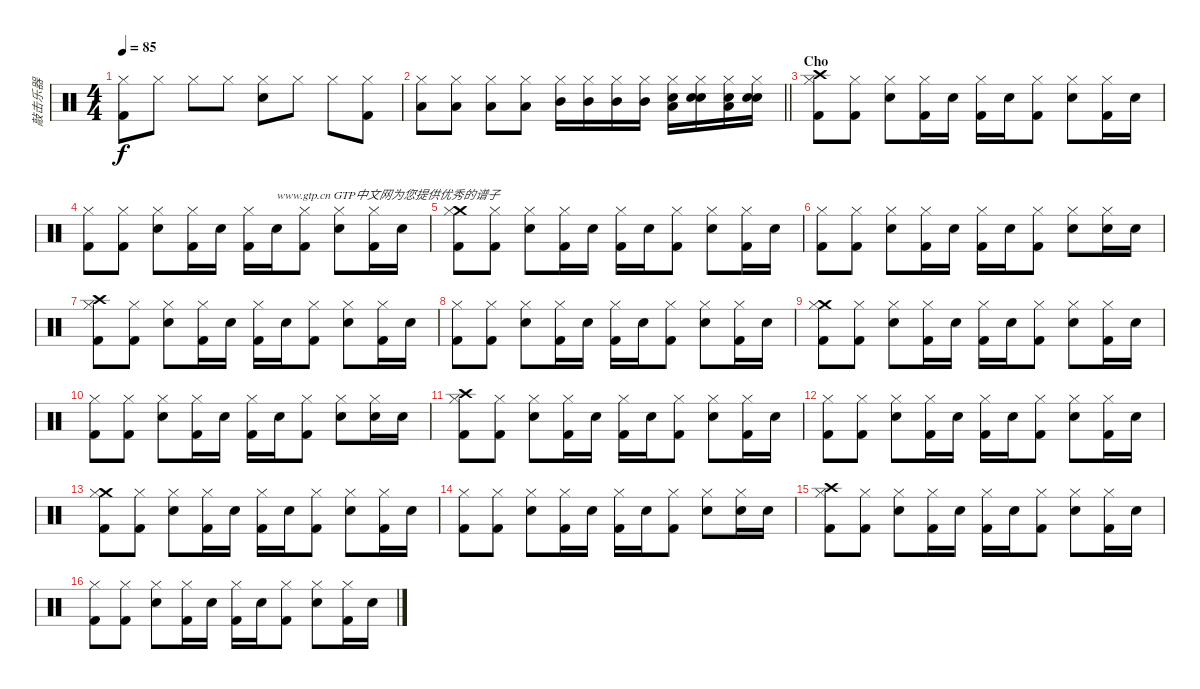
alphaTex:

\track ("敲击乐器" "敲击乐器") {instrument percussion}
\staff {score}
\articulation defaults
\ts (4 4)
\tempo 85
\clef neutral
\ks c
("Hi-Hat (closed)" "Kick (hit) 2").8{dy f} "Hi-Hat (closed)".8 "Hi-Hat (closed)".8 "Hi-Hat (closed)".8 ("Electric Snare (hit)" "Hi-Hat (closed)").8 "Hi-Hat (closed)".8 "Hi-Hat (closed)".8 ("Kick (hit) 2" "Hi-Hat (closed)").8 |
\barLineRight lightlight
("Hi-Hat (closed)" "Low Tom (hit)").8 ("Hi-Hat (closed)" "Low Tom (hit)").8 ("Hi-Hat (closed)" "Low Tom (hit)").8 ("Hi-Hat (closed)" "Low Tom (hit)").8 ("Hi-Hat (closed)" "Mid Tom (hit)").16 ("Hi-Hat (closed)" "Mid Tom (hit)").16 ("Hi-Hat (closed)" "Mid Tom (hit)").16 ("Hi-Hat (closed)" "Mid Tom (hit)").16 ("Low Tom (hit)" "Hi-Hat (closed)" "Electric Snare (hit)").16 ("Electric Snare (hit)" "Hi-Hat (closed)" "Electric Snare (hit)").16 ("Low Tom (hit)" "Hi-Hat (closed)" "Electric Snare (hit)").16 ("Electric Snare (hit)" "Hi-Hat (closed)" "Electric Snare (hit)").16 |
\section ("" "Cho")
("Crash high (hit)" "Hi-Hat (closed)" "Kick (hit) 2").8 ("Hi-Hat (closed)" "Kick (hit) 2").8 ("Hi-Hat (closed)" "Electric Snare (hit)").8 ("Hi-Hat (closed)" "Kick (hit) 2").16 "Electric Snare (hit)".16 ("Hi-Hat (closed)" "Kick (hit) 2").16 "Electric Snare (hit)".16 ("Hi-Hat (closed)" "Kick (hit) 2").8 ("Hi-Hat (closed)" "Electric Snare (hit)").8 ("Hi-Hat (closed)" "Kick (hit) 2").16 "Electric Snare (hit)".16 |
("Hi-Hat (closed)" "Kick (hit) 2").8 ("Hi-Hat (closed)" "Kick (hit) 2").8 ("Hi-Hat (closed)" "Electric Snare (hit)").8 ("Hi-Hat (closed)" "Kick (hit) 2").16 "Electric Snare (hit)".16 ("Hi-Hat (closed)" "Kick (hit) 2").16 "Electric Snare (hit)".16{txt "www.gtp.cn GTP中文网为您提供优秀的谱子"} ("Hi-Hat (closed)" "Kick (hit) 2").8 ("Hi-Hat (closed)" "Electric Snare (hit)").8 ("Hi-Hat (closed)" "Kick (hit) 2").16 "Electric Snare (hit)".16 |
("Crash medium (hit)" "Hi-Hat (closed)" "Kick (hit) 2").8 ("Hi-Hat (closed)" "Kick (hit) 2").8 ("Hi-Hat (closed)" "Electric Snare (hit)").8 ("Hi-Hat (closed)" "Kick (hit) 2").16 "Electric Snare (hit)".16 ("Hi-Hat (closed)" "Kick (hit) 2").16 "Electric Snare (hit)".16 ("Hi-Hat (closed)" "Kick (hit) 2").8 ("Hi-Hat (closed)" "Electric Snare (hit)").8 ("Hi-Hat (closed)" "Kick (hit) 2").16 "Electric Snare (hit)".16 |
("Hi-Hat (closed)" "Kick (hit) 2").8 ("Hi-Hat (closed)" "Kick (hit) 2").8 ("Hi-Hat (closed)" "Electric Snare (hit)").8 ("Hi-Hat (closed)" "Kick (hit) 2").16 "Electric Snare (hit)".16 ("Hi-Hat (closed)" "Kick (hit) 2").16 "Electric Snare (hit)".16 ("Hi-Hat (closed)" "Kick (hit) 2").8 ("Hi-Hat (closed)" "Electric Snare (hit)").8 ("Hi-Hat (closed)" "Electric Snare (hit)").16 "Electric Snare (hit)".16 |
("Crash high (hit)" "Hi-Hat (closed)" "Kick (hit) 2").8 ("Hi-Hat (closed)" "Kick (hit) 2").8 ("Hi-Hat (closed)" "Electric Snare (hit)").8 ("Hi-Hat (closed)" "Kick (hit) 2").16 "Electric Snare (hit)".16 ("Hi-Hat (closed)" "Kick (hit) 2").16 "Electric Snare (hit)".16 ("Hi-Hat (closed)" "Kick (hit) 2").8 ("Hi-Hat (closed)" "Electric Snare (hit)").8 ("Hi-Hat (closed)" "Kick (hit) 2").16 "Electric Snare (hit)".16 |
("Hi-Hat (closed)" "Kick (hit) 2").8 ("Hi-Hat (closed)" "Kick (hit) 2").8 ("Hi-Hat (closed)" "Electric Snare (hit)").8 ("Hi-Hat (closed)" "Kick (hit) 2").16 "Electric Snare (hit)".16 ("Hi-Hat (closed)" "Kick (hit) 2").16 "Electric Snare (hit)".16 ("Hi-Hat (closed)" "Kick (hit) 2").8 ("Hi-Hat (closed)" "Electric Snare (hit)").8 ("Hi-Hat (closed)" "Kick (hit) 2").16 "Electric Snare (hit)".16 |
("Crash medium (hit)" "Hi-Hat (closed)" "Kick (hit) 2").8 ("Hi-Hat (closed)" "Kick (hit) 2").8 ("Hi-Hat (closed)" "Electric Snare (hit)").8 ("Hi-Hat (closed)" "Kick (hit) 2").16 "Electric Snare (hit)".16 ("Hi-Hat (closed)" "Kick (hit) 2").16 "Electric Snare (hit)".16 ("Hi-Hat (closed)" "Kick (hit) 2").8 ("Hi-Hat (closed)" "Electric Snare (hit)").8 ("Hi-Hat (closed)" "Kick (hit) 2").16 "Electric Snare (hit)".16 |
("Hi-Hat (closed)" "Kick (hit) 2").8 ("Hi-Hat (closed)" "Kick (hit) 2").8 ("Hi-Hat (closed)" "Electric Snare (hit)").8 ("Hi-Hat (closed)" "Kick (hit) 2").16 "Electric Snare (hit)".16 ("Hi-Hat (closed)" "Kick (hit) 2").16 "Electric Snare (hit)".16 ("Hi-Hat (closed)" "Kick (hit) 2").8 ("Hi-Hat (closed)" "Electric Snare (hit)").8 ("Hi-Hat (closed)" "Electric Snare (hit)").16 "Electric Snare (hit)".16 |
("Crash high (hit)" "Hi-Hat (closed)" "Kick (hit) 2").8 ("Hi-Hat (closed)" "Kick (hit) 2").8 ("Hi-Hat (closed)" "Electric Snare (hit)").8 ("Hi-Hat (closed)" "Kick (hit) 2").16 "Electric Snare (hit)".16 ("Hi-Hat (closed)" "Kick (hit) 2").16 "Electric Snare (hit)".16 ("Hi-Hat (closed)" "Kick (hit) 2").8 ("Hi-Hat (closed)" "Electric Snare (hit)").8 ("Hi-Hat (closed)" "Kick (hit) 2").16 "Electric Snare (hit)".16 |
("Hi-Hat (closed)" "Kick (hit) 2").8 ("Hi-Hat (closed)" "Kick (hit) 2").8 ("Hi-Hat (closed)" "Electric Snare (hit)").8 ("Hi-Hat (closed)" "Kick (hit) 2").16 "Electric Snare (hit)".16 ("Hi-Hat (closed)" "Kick (hit) 2").16 "Electric Snare (hit)".16 ("Hi-Hat (closed)" "Kick (hit) 2").8 ("Hi-Hat (closed)" "Electric Snare (hit)").8 ("Hi-Hat (closed)" "Kick (hit) 2").16 "Electric Snare (hit)".16 |
("Crash medium (hit)" "Hi-Hat (closed)" "Kick (hit) 2").8 ("Hi-Hat (closed)" "Kick (hit) 2").8 ("Hi-Hat (closed)" "Electric Snare (hit)").8 ("Hi-Hat (closed)" "Kick (hit) 2").16 "Electric Snare (hit)".16 ("Hi-Hat (closed)" "Kick (hit) 2").16 "Electric Snare (hit)".16 ("Hi-Hat (closed)" "Kick (hit) 2").8 ("Hi-Hat (closed)" "Electric Snare (hit)").8 ("Hi-Hat (closed)" "Kick (hit) 2").16 "Electric Snare (hit)".16 |
("Hi-Hat (closed)" "Kick (hit) 2").8 ("Hi-Hat (closed)" "Kick (hit) 2").8 ("Hi-Hat (closed)" "Electric Snare (hit)").8 ("Hi-Hat (closed)" "Kick (hit) 2").16 "Electric Snare (hit)".16 ("Hi-Hat (closed)" "Kick (hit) 2").16 "Electric Snare (hit)".16 ("Hi-Hat (closed)" "Kick (hit) 2").8 ("Hi-Hat (closed)" "Electric Snare (hit)").8 ("Hi-Hat (closed)" "Electric Snare (hit)").16 "Electric Snare (hit)".16 |
("Crash high (hit)" "Hi-Hat (closed)" "Kick (hit) 2").8 ("Hi-Hat (closed)" "Kick (hit) 2").8 ("Hi-Hat (closed)" "Electric Snare (hit)").8 ("Hi-Hat (closed)" "Kick (hit) 2").16 "Electric Snare (hit)".16 ("Hi-Hat (closed)" "Kick (hit) 2").16 "Electric Snare (hit)".16 ("Hi-Hat (closed)" "Kick (hit) 2").8 ("Hi-Hat (closed)" "Electric Snare (hit)").8 ("Hi-Hat (closed)" "Kick (hit) 2").16 "Electric Snare (hit)".16 |
("Hi-Hat (closed)" "Kick (hit) 2").8 ("Hi-Hat (closed)" "Kick (hit) 2").8 ("Hi-Hat (closed)" "Electric Snare (hit)").8 ("Hi-Hat (closed)" "Kick (hit) 2").16 "Electric Snare (hit)".16 ("Hi-Hat (closed)" "Kick (hit) 2").16 "Electric Snare (hit)".16 ("Hi-Hat (closed)" "Kick (hit) 2").8 ("Hi-Hat (closed)" "Electric Snare (hit)").8 ("Hi-Hat (closed)" "Kick (hit) 2").16 "Electric Snare (hit)".16
